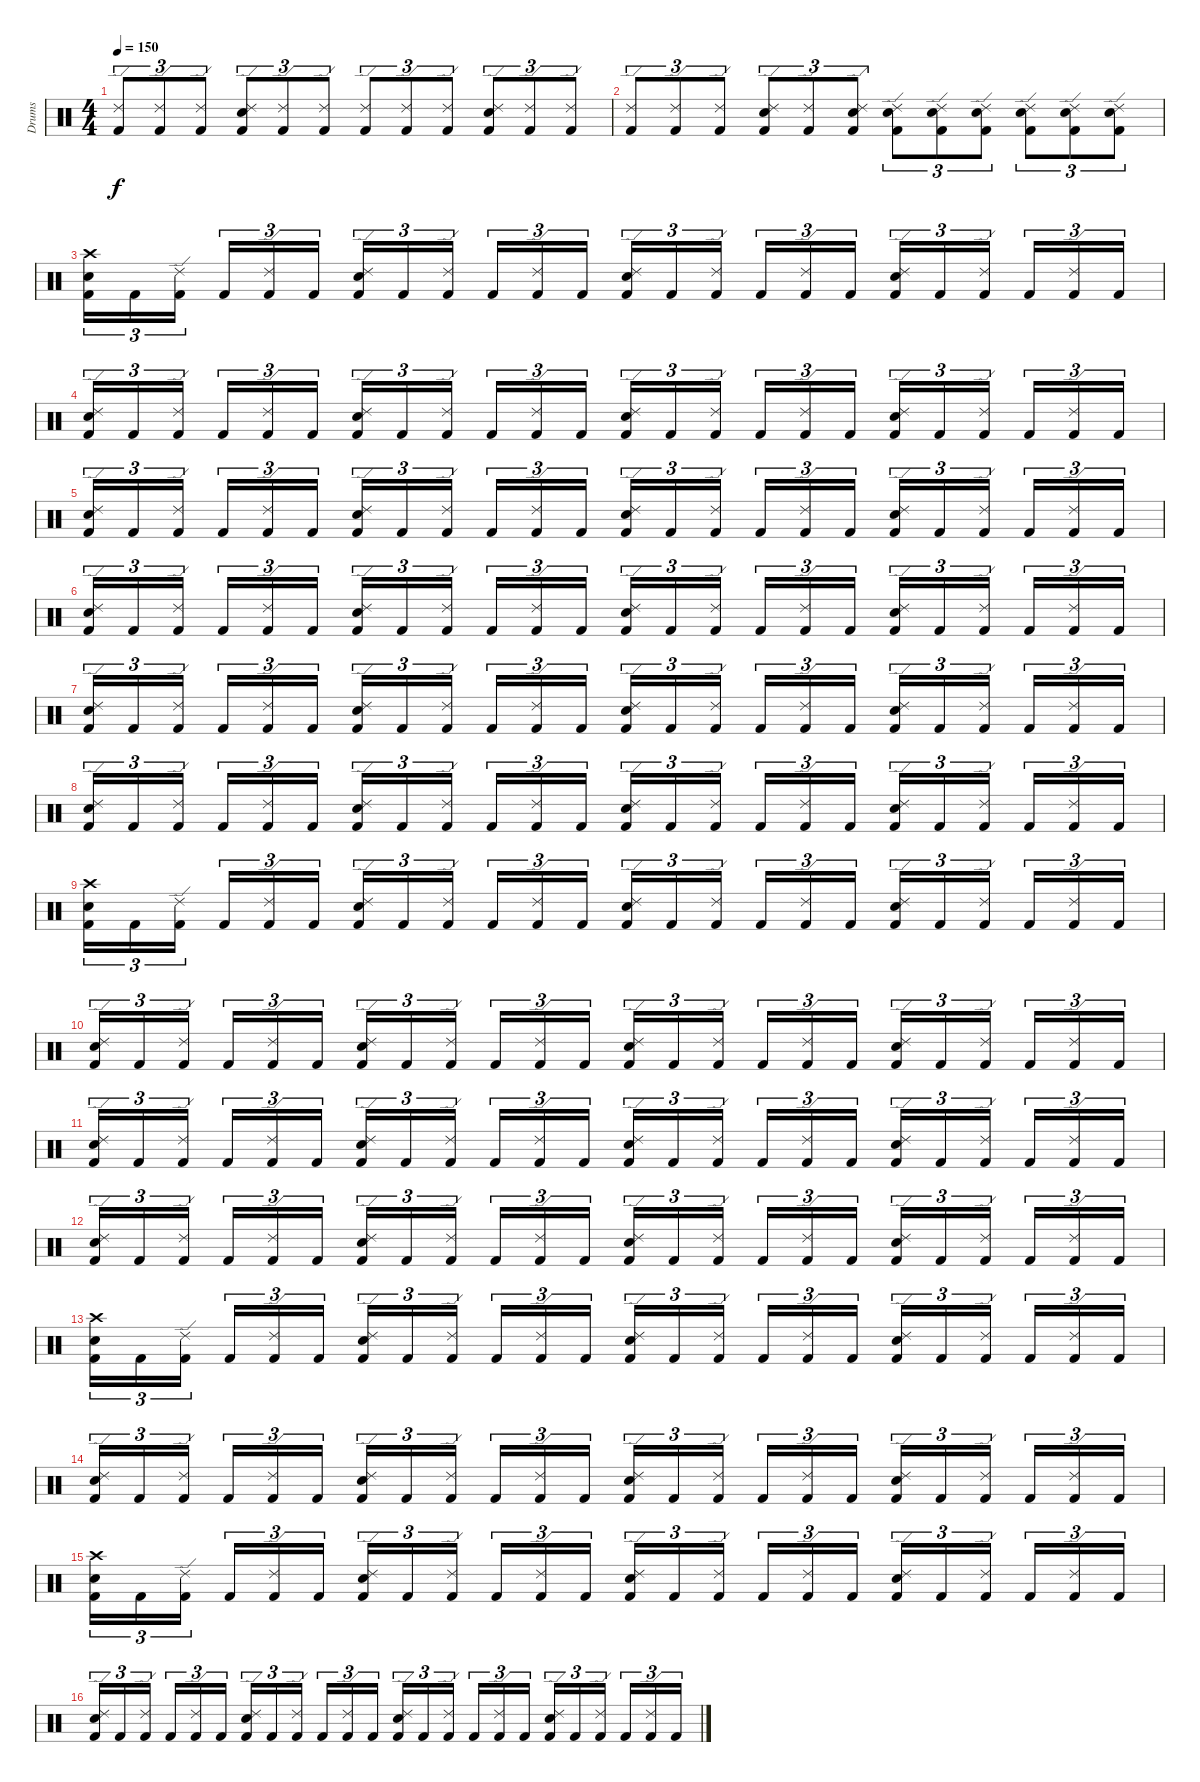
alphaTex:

\track ("Drums" "Drums") {instrument percussion}
\staff {score}
\articulation defaults
\ts (4 4)
\tempo 150
\clef neutral
\ks c
("Ride (edge) 2" "Kick (hit) 2").8{tu (3 2) dy f} ("Ride (edge) 2" "Kick (hit) 2").8{tu (3 2)} ("Ride (edge) 2" "Kick (hit) 2").8{tu (3 2)} ("Ride (edge) 2" "Electric Snare (hit)" "Kick (hit) 2").8{tu (3 2)} ("Ride (edge) 2" "Kick (hit) 2").8{tu (3 2)} ("Ride (edge) 2" "Kick (hit) 2").8{tu (3 2)} ("Ride (edge) 2" "Kick (hit) 2").8{tu (3 2)} ("Ride (edge) 2" "Kick (hit) 2").8{tu (3 2)} ("Ride (edge) 2" "Kick (hit) 2").8{tu (3 2)} ("Ride (edge) 2" "Electric Snare (hit)" "Kick (hit) 2").8{tu (3 2)} ("Ride (edge) 2" "Kick (hit) 2").8{tu (3 2)} ("Ride (edge) 2" "Kick (hit) 2").8{tu (3 2)} |
("Ride (edge) 2" "Kick (hit) 2").8{tu (3 2)} ("Ride (edge) 2" "Kick (hit) 2").8{tu (3 2)} ("Ride (edge) 2" "Kick (hit) 2").8{tu (3 2)} ("Ride (edge) 2" "Electric Snare (hit)" "Kick (hit) 2").8{tu (3 2)} ("Ride (edge) 2" "Kick (hit) 2").8{tu (3 2)} ("Ride (edge) 2" "Electric Snare (hit)" "Kick (hit) 2").8{tu (3 2)} ("Ride (edge) 2" "Electric Snare (hit)" "Kick (hit) 2").8{tu (3 2)} ("Ride (edge) 2" "Electric Snare (hit)" "Kick (hit) 2").8{tu (3 2)} ("Ride (edge) 2" "Electric Snare (hit)" "Kick (hit) 2").8{tu (3 2)} ("Ride (edge) 2" "Electric Snare (hit)" "Kick (hit) 2").8{tu (3 2)} ("Ride (edge) 2" "Electric Snare (hit)" "Kick (hit) 2").8{tu (3 2)} ("Ride (edge) 2" "Electric Snare (hit)" "Kick (hit) 2").8{tu (3 2)} |
("Crash high (hit)" "Electric Snare (hit)" "Kick (hit) 2").16{tu (3 2)} "Kick (hit) 2".16{tu (3 2)} ("Ride (edge) 2" "Kick (hit) 2").16{tu (3 2)} "Kick (hit) 2".16{tu (3 2)} ("Ride (edge) 2" "Kick (hit) 2").16{tu (3 2)} "Kick (hit) 2".16{tu (3 2)} ("Ride (edge) 2" "Electric Snare (hit)" "Kick (hit) 2").16{tu (3 2)} "Kick (hit) 2".16{tu (3 2)} ("Ride (edge) 2" "Kick (hit) 2").16{tu (3 2)} "Kick (hit) 2".16{tu (3 2)} ("Ride (edge) 2" "Kick (hit) 2").16{tu (3 2)} "Kick (hit) 2".16{tu (3 2)} ("Ride (edge) 2" "Electric Snare (hit)" "Kick (hit) 2").16{tu (3 2)} "Kick (hit) 2".16{tu (3 2)} ("Ride (edge) 2" "Kick (hit) 2").16{tu (3 2)} "Kick (hit) 2".16{tu (3 2)} ("Ride (edge) 2" "Kick (hit) 2").16{tu (3 2)} "Kick (hit) 2".16{tu (3 2)} ("Ride (edge) 2" "Electric Snare (hit)" "Kick (hit) 2").16{tu (3 2)} "Kick (hit) 2".16{tu (3 2)} ("Ride (edge) 2" "Kick (hit) 2").16{tu (3 2)} "Kick (hit) 2".16{tu (3 2)} ("Ride (edge) 2" "Kick (hit) 2").16{tu (3 2)} "Kick (hit) 2".16{tu (3 2)} |
("Ride (edge) 2" "Electric Snare (hit)" "Kick (hit) 2").16{tu (3 2)} "Kick (hit) 2".16{tu (3 2)} ("Ride (edge) 2" "Kick (hit) 2").16{tu (3 2)} "Kick (hit) 2".16{tu (3 2)} ("Ride (edge) 2" "Kick (hit) 2").16{tu (3 2)} "Kick (hit) 2".16{tu (3 2)} ("Ride (edge) 2" "Electric Snare (hit)" "Kick (hit) 2").16{tu (3 2)} "Kick (hit) 2".16{tu (3 2)} ("Ride (edge) 2" "Kick (hit) 2").16{tu (3 2)} "Kick (hit) 2".16{tu (3 2)} ("Ride (edge) 2" "Kick (hit) 2").16{tu (3 2)} "Kick (hit) 2".16{tu (3 2)} ("Ride (edge) 2" "Electric Snare (hit)" "Kick (hit) 2").16{tu (3 2)} "Kick (hit) 2".16{tu (3 2)} ("Ride (edge) 2" "Kick (hit) 2").16{tu (3 2)} "Kick (hit) 2".16{tu (3 2)} ("Ride (edge) 2" "Kick (hit) 2").16{tu (3 2)} "Kick (hit) 2".16{tu (3 2)} ("Ride (edge) 2" "Electric Snare (hit)" "Kick (hit) 2").16{tu (3 2)} "Kick (hit) 2".16{tu (3 2)} ("Ride (edge) 2" "Kick (hit) 2").16{tu (3 2)} "Kick (hit) 2".16{tu (3 2)} ("Ride (edge) 2" "Kick (hit) 2").16{tu (3 2)} "Kick (hit) 2".16{tu (3 2)} |
("Ride (edge) 2" "Electric Snare (hit)" "Kick (hit) 2").16{tu (3 2)} "Kick (hit) 2".16{tu (3 2)} ("Ride (edge) 2" "Kick (hit) 2").16{tu (3 2)} "Kick (hit) 2".16{tu (3 2)} ("Ride (edge) 2" "Kick (hit) 2").16{tu (3 2)} "Kick (hit) 2".16{tu (3 2)} ("Ride (edge) 2" "Electric Snare (hit)" "Kick (hit) 2").16{tu (3 2)} "Kick (hit) 2".16{tu (3 2)} ("Ride (edge) 2" "Kick (hit) 2").16{tu (3 2)} "Kick (hit) 2".16{tu (3 2)} ("Ride (edge) 2" "Kick (hit) 2").16{tu (3 2)} "Kick (hit) 2".16{tu (3 2)} ("Ride (edge) 2" "Electric Snare (hit)" "Kick (hit) 2").16{tu (3 2)} "Kick (hit) 2".16{tu (3 2)} ("Ride (edge) 2" "Kick (hit) 2").16{tu (3 2)} "Kick (hit) 2".16{tu (3 2)} ("Ride (edge) 2" "Kick (hit) 2").16{tu (3 2)} "Kick (hit) 2".16{tu (3 2)} ("Ride (edge) 2" "Electric Snare (hit)" "Kick (hit) 2").16{tu (3 2)} "Kick (hit) 2".16{tu (3 2)} ("Ride (edge) 2" "Kick (hit) 2").16{tu (3 2)} "Kick (hit) 2".16{tu (3 2)} ("Ride (edge) 2" "Kick (hit) 2").16{tu (3 2)} "Kick (hit) 2".16{tu (3 2)} |
("Ride (edge) 2" "Electric Snare (hit)" "Kick (hit) 2").16{tu (3 2)} "Kick (hit) 2".16{tu (3 2)} ("Ride (edge) 2" "Kick (hit) 2").16{tu (3 2)} "Kick (hit) 2".16{tu (3 2)} ("Ride (edge) 2" "Kick (hit) 2").16{tu (3 2)} "Kick (hit) 2".16{tu (3 2)} ("Ride (edge) 2" "Electric Snare (hit)" "Kick (hit) 2").16{tu (3 2)} "Kick (hit) 2".16{tu (3 2)} ("Ride (edge) 2" "Kick (hit) 2").16{tu (3 2)} "Kick (hit) 2".16{tu (3 2)} ("Ride (edge) 2" "Kick (hit) 2").16{tu (3 2)} "Kick (hit) 2".16{tu (3 2)} ("Ride (edge) 2" "Electric Snare (hit)" "Kick (hit) 2").16{tu (3 2)} "Kick (hit) 2".16{tu (3 2)} ("Ride (edge) 2" "Kick (hit) 2").16{tu (3 2)} "Kick (hit) 2".16{tu (3 2)} ("Ride (edge) 2" "Kick (hit) 2").16{tu (3 2)} "Kick (hit) 2".16{tu (3 2)} ("Ride (edge) 2" "Electric Snare (hit)" "Kick (hit) 2").16{tu (3 2)} "Kick (hit) 2".16{tu (3 2)} ("Ride (edge) 2" "Kick (hit) 2").16{tu (3 2)} "Kick (hit) 2".16{tu (3 2)} ("Ride (edge) 2" "Kick (hit) 2").16{tu (3 2)} "Kick (hit) 2".16{tu (3 2)} |
("Ride (edge) 2" "Electric Snare (hit)" "Kick (hit) 2").16{tu (3 2)} "Kick (hit) 2".16{tu (3 2)} ("Ride (edge) 2" "Kick (hit) 2").16{tu (3 2)} "Kick (hit) 2".16{tu (3 2)} ("Ride (edge) 2" "Kick (hit) 2").16{tu (3 2)} "Kick (hit) 2".16{tu (3 2)} ("Ride (edge) 2" "Electric Snare (hit)" "Kick (hit) 2").16{tu (3 2)} "Kick (hit) 2".16{tu (3 2)} ("Ride (edge) 2" "Kick (hit) 2").16{tu (3 2)} "Kick (hit) 2".16{tu (3 2)} ("Ride (edge) 2" "Kick (hit) 2").16{tu (3 2)} "Kick (hit) 2".16{tu (3 2)} ("Ride (edge) 2" "Electric Snare (hit)" "Kick (hit) 2").16{tu (3 2)} "Kick (hit) 2".16{tu (3 2)} ("Ride (edge) 2" "Kick (hit) 2").16{tu (3 2)} "Kick (hit) 2".16{tu (3 2)} ("Ride (edge) 2" "Kick (hit) 2").16{tu (3 2)} "Kick (hit) 2".16{tu (3 2)} ("Ride (edge) 2" "Electric Snare (hit)" "Kick (hit) 2").16{tu (3 2)} "Kick (hit) 2".16{tu (3 2)} ("Ride (edge) 2" "Kick (hit) 2").16{tu (3 2)} "Kick (hit) 2".16{tu (3 2)} ("Ride (edge) 2" "Kick (hit) 2").16{tu (3 2)} "Kick (hit) 2".16{tu (3 2)} |
("Ride (edge) 2" "Electric Snare (hit)" "Kick (hit) 2").16{tu (3 2)} "Kick (hit) 2".16{tu (3 2)} ("Ride (edge) 2" "Kick (hit) 2").16{tu (3 2)} "Kick (hit) 2".16{tu (3 2)} ("Ride (edge) 2" "Kick (hit) 2").16{tu (3 2)} "Kick (hit) 2".16{tu (3 2)} ("Ride (edge) 2" "Electric Snare (hit)" "Kick (hit) 2").16{tu (3 2)} "Kick (hit) 2".16{tu (3 2)} ("Ride (edge) 2" "Kick (hit) 2").16{tu (3 2)} "Kick (hit) 2".16{tu (3 2)} ("Ride (edge) 2" "Kick (hit) 2").16{tu (3 2)} "Kick (hit) 2".16{tu (3 2)} ("Ride (edge) 2" "Electric Snare (hit)" "Kick (hit) 2").16{tu (3 2)} "Kick (hit) 2".16{tu (3 2)} ("Ride (edge) 2" "Kick (hit) 2").16{tu (3 2)} "Kick (hit) 2".16{tu (3 2)} ("Ride (edge) 2" "Kick (hit) 2").16{tu (3 2)} "Kick (hit) 2".16{tu (3 2)} ("Ride (edge) 2" "Electric Snare (hit)" "Kick (hit) 2").16{tu (3 2)} "Kick (hit) 2".16{tu (3 2)} ("Ride (edge) 2" "Kick (hit) 2").16{tu (3 2)} "Kick (hit) 2".16{tu (3 2)} ("Ride (edge) 2" "Kick (hit) 2").16{tu (3 2)} "Kick (hit) 2".16{tu (3 2)} |
("Crash high (hit)" "Electric Snare (hit)" "Kick (hit) 2").16{tu (3 2)} "Kick (hit) 2".16{tu (3 2)} ("Ride (edge) 2" "Kick (hit) 2").16{tu (3 2)} "Kick (hit) 2".16{tu (3 2)} ("Ride (edge) 2" "Kick (hit) 2").16{tu (3 2)} "Kick (hit) 2".16{tu (3 2)} ("Ride (edge) 2" "Electric Snare (hit)" "Kick (hit) 2").16{tu (3 2)} "Kick (hit) 2".16{tu (3 2)} ("Ride (edge) 2" "Kick (hit) 2").16{tu (3 2)} "Kick (hit) 2".16{tu (3 2)} ("Ride (edge) 2" "Kick (hit) 2").16{tu (3 2)} "Kick (hit) 2".16{tu (3 2)} ("Ride (edge) 2" "Electric Snare (hit)" "Kick (hit) 2").16{tu (3 2)} "Kick (hit) 2".16{tu (3 2)} ("Ride (edge) 2" "Kick (hit) 2").16{tu (3 2)} "Kick (hit) 2".16{tu (3 2)} ("Ride (edge) 2" "Kick (hit) 2").16{tu (3 2)} "Kick (hit) 2".16{tu (3 2)} ("Ride (edge) 2" "Electric Snare (hit)" "Kick (hit) 2").16{tu (3 2)} "Kick (hit) 2".16{tu (3 2)} ("Ride (edge) 2" "Kick (hit) 2").16{tu (3 2)} "Kick (hit) 2".16{tu (3 2)} ("Ride (edge) 2" "Kick (hit) 2").16{tu (3 2)} "Kick (hit) 2".16{tu (3 2)} |
("Ride (edge) 2" "Electric Snare (hit)" "Kick (hit) 2").16{tu (3 2)} "Kick (hit) 2".16{tu (3 2)} ("Ride (edge) 2" "Kick (hit) 2").16{tu (3 2)} "Kick (hit) 2".16{tu (3 2)} ("Ride (edge) 2" "Kick (hit) 2").16{tu (3 2)} "Kick (hit) 2".16{tu (3 2)} ("Ride (edge) 2" "Electric Snare (hit)" "Kick (hit) 2").16{tu (3 2)} "Kick (hit) 2".16{tu (3 2)} ("Ride (edge) 2" "Kick (hit) 2").16{tu (3 2)} "Kick (hit) 2".16{tu (3 2)} ("Ride (edge) 2" "Kick (hit) 2").16{tu (3 2)} "Kick (hit) 2".16{tu (3 2)} ("Ride (edge) 2" "Electric Snare (hit)" "Kick (hit) 2").16{tu (3 2)} "Kick (hit) 2".16{tu (3 2)} ("Ride (edge) 2" "Kick (hit) 2").16{tu (3 2)} "Kick (hit) 2".16{tu (3 2)} ("Ride (edge) 2" "Kick (hit) 2").16{tu (3 2)} "Kick (hit) 2".16{tu (3 2)} ("Ride (edge) 2" "Electric Snare (hit)" "Kick (hit) 2").16{tu (3 2)} "Kick (hit) 2".16{tu (3 2)} ("Ride (edge) 2" "Kick (hit) 2").16{tu (3 2)} "Kick (hit) 2".16{tu (3 2)} ("Ride (edge) 2" "Kick (hit) 2").16{tu (3 2)} "Kick (hit) 2".16{tu (3 2)} |
("Ride (edge) 2" "Electric Snare (hit)" "Kick (hit) 2").16{tu (3 2)} "Kick (hit) 2".16{tu (3 2)} ("Ride (edge) 2" "Kick (hit) 2").16{tu (3 2)} "Kick (hit) 2".16{tu (3 2)} ("Ride (edge) 2" "Kick (hit) 2").16{tu (3 2)} "Kick (hit) 2".16{tu (3 2)} ("Ride (edge) 2" "Electric Snare (hit)" "Kick (hit) 2").16{tu (3 2)} "Kick (hit) 2".16{tu (3 2)} ("Ride (edge) 2" "Kick (hit) 2").16{tu (3 2)} "Kick (hit) 2".16{tu (3 2)} ("Ride (edge) 2" "Kick (hit) 2").16{tu (3 2)} "Kick (hit) 2".16{tu (3 2)} ("Ride (edge) 2" "Electric Snare (hit)" "Kick (hit) 2").16{tu (3 2)} "Kick (hit) 2".16{tu (3 2)} ("Ride (edge) 2" "Kick (hit) 2").16{tu (3 2)} "Kick (hit) 2".16{tu (3 2)} ("Ride (edge) 2" "Kick (hit) 2").16{tu (3 2)} "Kick (hit) 2".16{tu (3 2)} ("Ride (edge) 2" "Electric Snare (hit)" "Kick (hit) 2").16{tu (3 2)} "Kick (hit) 2".16{tu (3 2)} ("Ride (edge) 2" "Kick (hit) 2").16{tu (3 2)} "Kick (hit) 2".16{tu (3 2)} ("Ride (edge) 2" "Kick (hit) 2").16{tu (3 2)} "Kick (hit) 2".16{tu (3 2)} |
("Ride (edge) 2" "Electric Snare (hit)" "Kick (hit) 2").16{tu (3 2)} "Kick (hit) 2".16{tu (3 2)} ("Ride (edge) 2" "Kick (hit) 2").16{tu (3 2)} "Kick (hit) 2".16{tu (3 2)} ("Ride (edge) 2" "Kick (hit) 2").16{tu (3 2)} "Kick (hit) 2".16{tu (3 2)} ("Ride (edge) 2" "Electric Snare (hit)" "Kick (hit) 2").16{tu (3 2)} "Kick (hit) 2".16{tu (3 2)} ("Ride (edge) 2" "Kick (hit) 2").16{tu (3 2)} "Kick (hit) 2".16{tu (3 2)} ("Ride (edge) 2" "Kick (hit) 2").16{tu (3 2)} "Kick (hit) 2".16{tu (3 2)} ("Ride (edge) 2" "Electric Snare (hit)" "Kick (hit) 2").16{tu (3 2)} "Kick (hit) 2".16{tu (3 2)} ("Ride (edge) 2" "Kick (hit) 2").16{tu (3 2)} "Kick (hit) 2".16{tu (3 2)} ("Ride (edge) 2" "Kick (hit) 2").16{tu (3 2)} "Kick (hit) 2".16{tu (3 2)} ("Ride (edge) 2" "Electric Snare (hit)" "Kick (hit) 2").16{tu (3 2)} "Kick (hit) 2".16{tu (3 2)} ("Ride (edge) 2" "Kick (hit) 2").16{tu (3 2)} "Kick (hit) 2".16{tu (3 2)} ("Ride (edge) 2" "Kick (hit) 2").16{tu (3 2)} "Kick (hit) 2".16{tu (3 2)} |
("Crash high (hit)" "Electric Snare (hit)" "Kick (hit) 2").16{tu (3 2)} "Kick (hit) 2".16{tu (3 2)} ("Ride (edge) 2" "Kick (hit) 2").16{tu (3 2)} "Kick (hit) 2".16{tu (3 2)} ("Ride (edge) 2" "Kick (hit) 2").16{tu (3 2)} "Kick (hit) 2".16{tu (3 2)} ("Ride (edge) 2" "Electric Snare (hit)" "Kick (hit) 2").16{tu (3 2)} "Kick (hit) 2".16{tu (3 2)} ("Ride (edge) 2" "Kick (hit) 2").16{tu (3 2)} "Kick (hit) 2".16{tu (3 2)} ("Ride (edge) 2" "Kick (hit) 2").16{tu (3 2)} "Kick (hit) 2".16{tu (3 2)} ("Ride (edge) 2" "Electric Snare (hit)" "Kick (hit) 2").16{tu (3 2)} "Kick (hit) 2".16{tu (3 2)} ("Ride (edge) 2" "Kick (hit) 2").16{tu (3 2)} "Kick (hit) 2".16{tu (3 2)} ("Ride (edge) 2" "Kick (hit) 2").16{tu (3 2)} "Kick (hit) 2".16{tu (3 2)} ("Ride (edge) 2" "Electric Snare (hit)" "Kick (hit) 2").16{tu (3 2)} "Kick (hit) 2".16{tu (3 2)} ("Ride (edge) 2" "Kick (hit) 2").16{tu (3 2)} "Kick (hit) 2".16{tu (3 2)} ("Ride (edge) 2" "Kick (hit) 2").16{tu (3 2)} "Kick (hit) 2".16{tu (3 2)} |
("Ride (edge) 2" "Electric Snare (hit)" "Kick (hit) 2").16{tu (3 2)} "Kick (hit) 2".16{tu (3 2)} ("Ride (edge) 2" "Kick (hit) 2").16{tu (3 2)} "Kick (hit) 2".16{tu (3 2)} ("Ride (edge) 2" "Kick (hit) 2").16{tu (3 2)} "Kick (hit) 2".16{tu (3 2)} ("Ride (edge) 2" "Electric Snare (hit)" "Kick (hit) 2").16{tu (3 2)} "Kick (hit) 2".16{tu (3 2)} ("Ride (edge) 2" "Kick (hit) 2").16{tu (3 2)} "Kick (hit) 2".16{tu (3 2)} ("Ride (edge) 2" "Kick (hit) 2").16{tu (3 2)} "Kick (hit) 2".16{tu (3 2)} ("Ride (edge) 2" "Electric Snare (hit)" "Kick (hit) 2").16{tu (3 2)} "Kick (hit) 2".16{tu (3 2)} ("Ride (edge) 2" "Kick (hit) 2").16{tu (3 2)} "Kick (hit) 2".16{tu (3 2)} ("Ride (edge) 2" "Kick (hit) 2").16{tu (3 2)} "Kick (hit) 2".16{tu (3 2)} ("Ride (edge) 2" "Electric Snare (hit)" "Kick (hit) 2").16{tu (3 2)} "Kick (hit) 2".16{tu (3 2)} ("Ride (edge) 2" "Kick (hit) 2").16{tu (3 2)} "Kick (hit) 2".16{tu (3 2)} ("Ride (edge) 2" "Kick (hit) 2").16{tu (3 2)} "Kick (hit) 2".16{tu (3 2)} |
("Crash high (hit)" "Electric Snare (hit)" "Kick (hit) 2").16{tu (3 2)} "Kick (hit) 2".16{tu (3 2)} ("Ride (edge) 2" "Kick (hit) 2").16{tu (3 2)} "Kick (hit) 2".16{tu (3 2)} ("Ride (edge) 2" "Kick (hit) 2").16{tu (3 2)} "Kick (hit) 2".16{tu (3 2)} ("Ride (edge) 2" "Electric Snare (hit)" "Kick (hit) 2").16{tu (3 2)} "Kick (hit) 2".16{tu (3 2)} ("Ride (edge) 2" "Kick (hit) 2").16{tu (3 2)} "Kick (hit) 2".16{tu (3 2)} ("Ride (edge) 2" "Kick (hit) 2").16{tu (3 2)} "Kick (hit) 2".16{tu (3 2)} ("Ride (edge) 2" "Electric Snare (hit)" "Kick (hit) 2").16{tu (3 2)} "Kick (hit) 2".16{tu (3 2)} ("Ride (edge) 2" "Kick (hit) 2").16{tu (3 2)} "Kick (hit) 2".16{tu (3 2)} ("Ride (edge) 2" "Kick (hit) 2").16{tu (3 2)} "Kick (hit) 2".16{tu (3 2)} ("Ride (edge) 2" "Electric Snare (hit)" "Kick (hit) 2").16{tu (3 2)} "Kick (hit) 2".16{tu (3 2)} ("Ride (edge) 2" "Kick (hit) 2").16{tu (3 2)} "Kick (hit) 2".16{tu (3 2)} ("Ride (edge) 2" "Kick (hit) 2").16{tu (3 2)} "Kick (hit) 2".16{tu (3 2)} |
("Ride (edge) 2" "Electric Snare (hit)" "Kick (hit) 2").16{tu (3 2)} "Kick (hit) 2".16{tu (3 2)} ("Ride (edge) 2" "Kick (hit) 2").16{tu (3 2)} "Kick (hit) 2".16{tu (3 2)} ("Ride (edge) 2" "Kick (hit) 2").16{tu (3 2)} "Kick (hit) 2".16{tu (3 2)} ("Ride (edge) 2" "Electric Snare (hit)" "Kick (hit) 2").16{tu (3 2)} "Kick (hit) 2".16{tu (3 2)} ("Ride (edge) 2" "Kick (hit) 2").16{tu (3 2)} "Kick (hit) 2".16{tu (3 2)} ("Ride (edge) 2" "Kick (hit) 2").16{tu (3 2)} "Kick (hit) 2".16{tu (3 2)} ("Ride (edge) 2" "Electric Snare (hit)" "Kick (hit) 2").16{tu (3 2)} "Kick (hit) 2".16{tu (3 2)} ("Ride (edge) 2" "Kick (hit) 2").16{tu (3 2)} "Kick (hit) 2".16{tu (3 2)} ("Ride (edge) 2" "Kick (hit) 2").16{tu (3 2)} "Kick (hit) 2".16{tu (3 2)} ("Ride (edge) 2" "Electric Snare (hit)" "Kick (hit) 2").16{tu (3 2)} "Kick (hit) 2".16{tu (3 2)} ("Ride (edge) 2" "Kick (hit) 2").16{tu (3 2)} "Kick (hit) 2".16{tu (3 2)} ("Ride (edge) 2" "Kick (hit) 2").16{tu (3 2)} "Kick (hit) 2".16{tu (3 2)}
